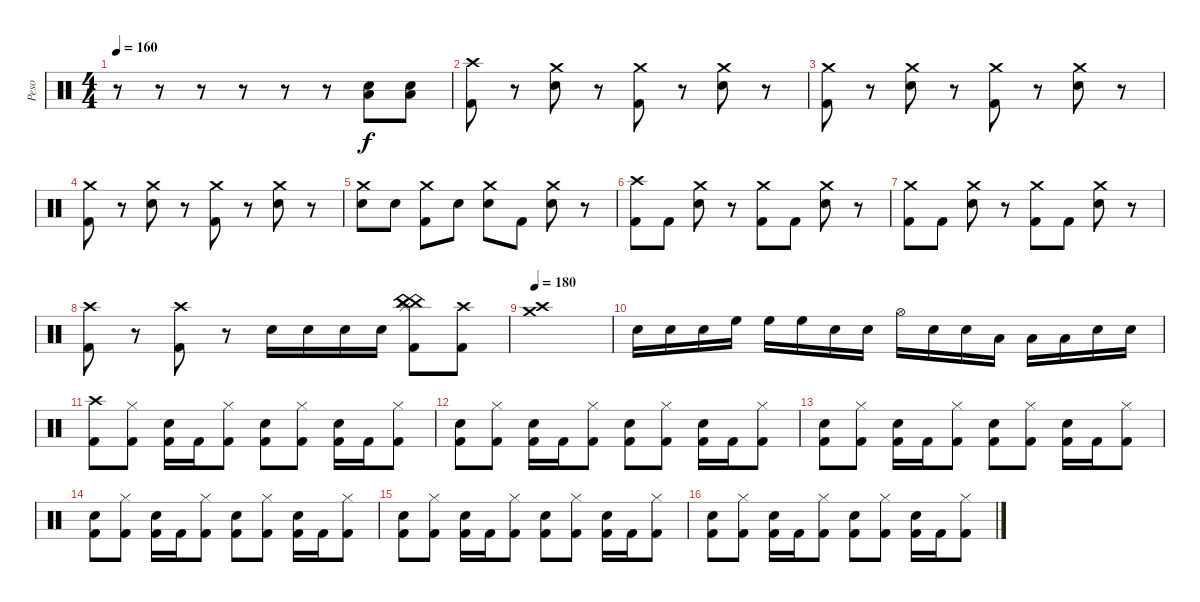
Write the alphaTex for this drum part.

\track ("Peso" "Peso") {instrument percussion}
\staff {score}
\articulation defaults
\ts (4 4)
\tempo 160
\clef neutral
\ks c
r.8{dy f} r.8 r.8 r.8 r.8 r.8 ("Snare (hit) 2" "Low Floor Tom (hit)").8 ("Snare (hit) 2" "Low Floor Tom (hit)").8 |
("Crash high (hit)" "Kick (hit) 2").8 r.8 ("Crash medium (hit)" "Snare (hit) 2").8 r.8 ("Crash medium (hit)" "Kick (hit) 2").8 r.8 ("Crash medium (hit)" "Snare (hit) 2").8 r.8 |
("Crash medium (hit)" "Kick (hit) 2").8 r.8 ("Crash medium (hit)" "Snare (hit) 2").8 r.8 ("Crash medium (hit)" "Kick (hit) 2").8 r.8 ("Crash medium (hit)" "Snare (hit) 2").8 r.8 |
("Crash medium (hit)" "Kick (hit) 2").8 r.8 ("Crash medium (hit)" "Snare (hit) 2").8 r.8 ("Crash medium (hit)" "Kick (hit) 2").8 r.8 ("Crash medium (hit)" "Snare (hit) 2").8 r.8 |
("Crash medium (hit)" "Snare (hit) 2").8 "Snare (hit) 2".8 ("Crash medium (hit)" "Kick (hit) 2").8 "Snare (hit) 2".8 ("Crash medium (hit)" "Snare (hit) 2").8 "Kick (hit) 2".8 ("Crash medium (hit)" "Snare (hit) 2").8 r.8 |
("Crash high (hit)" "Kick (hit) 2").8 "Kick (hit) 2".8 ("Crash medium (hit)" "Snare (hit) 2").8 r.8 ("Crash medium (hit)" "Kick (hit) 2").8 "Kick (hit) 2".8 ("Crash medium (hit)" "Snare (hit) 2").8 r.8 |
("Crash medium (hit)" "Kick (hit) 2").8 "Kick (hit) 2".8 ("Crash medium (hit)" "Snare (hit) 2").8 r.8 ("Crash medium (hit)" "Kick (hit) 2").8 "Kick (hit) 2".8 ("Crash medium (hit)" "Snare (hit) 2").8 r.8 |
("Crash high (hit)" "Kick (hit) 2").8 r.8 ("Crash high (hit)" "Kick (hit) 2").8 r.8 "Snare (hit) 2".16 "Snare (hit) 2".16 "Snare (hit) 2".16 "Snare (hit) 2".16 ("Splash (hit)" "China (hit)" "China (hit)" "China (hit)" "Kick (hit) 2").8 ("Crash high (hit)"{x} "Kick (hit) 2"{x}).8 |
\tempo 180
("Crash high (hit)" "Crash medium (hit)").1 |
"Snare (hit) 2".16 "Snare (hit) 2".16 "Snare (hit) 2".16 "High Floor Tom (hit)".16 "High Floor Tom (hit)".16 "High Floor Tom (hit)".16 "Snare (hit) 2".16 "Snare (hit) 2".16 "Hi-Hat (open)".16 "Snare (hit) 2".16 "Snare (hit) 2".16 "Low Floor Tom (hit)".16 "Low Floor Tom (hit)".16 "Low Floor Tom (hit)".16 "Snare (hit) 2".16 "Snare (hit) 2".16 |
("Crash high (hit)" "Kick (hit) 2").8 ("Hi-Hat (closed)" "Kick (hit) 2").8 ("Snare (hit) 2" "Kick (hit) 2").16 "Kick (hit) 2".16 ("Hi-Hat (closed)" "Kick (hit) 2").8 ("Snare (hit) 2" "Kick (hit) 2").8 ("Hi-Hat (closed)" "Kick (hit) 2").8 ("Snare (hit) 2" "Kick (hit) 2").16 "Kick (hit) 2".16 ("Hi-Hat (closed)" "Kick (hit) 2").8 |
("Snare (hit) 2" "Kick (hit) 2").8 ("Hi-Hat (closed)" "Kick (hit) 2").8 ("Snare (hit) 2" "Kick (hit) 2").16 "Kick (hit) 2".16 ("Hi-Hat (closed)" "Kick (hit) 2").8 ("Snare (hit) 2" "Kick (hit) 2").8 ("Hi-Hat (closed)" "Kick (hit) 2").8 ("Snare (hit) 2" "Kick (hit) 2").16 "Kick (hit) 2".16 ("Hi-Hat (closed)" "Kick (hit) 2").8 |
("Snare (hit) 2" "Kick (hit) 2").8 ("Hi-Hat (closed)" "Kick (hit) 2").8 ("Snare (hit) 2" "Kick (hit) 2").16 "Kick (hit) 2".16 ("Hi-Hat (closed)" "Kick (hit) 2").8 ("Snare (hit) 2" "Kick (hit) 2").8 ("Hi-Hat (closed)" "Kick (hit) 2").8 ("Snare (hit) 2" "Kick (hit) 2").16 "Kick (hit) 2".16 ("Hi-Hat (closed)" "Kick (hit) 2").8 |
("Snare (hit) 2" "Kick (hit) 2").8 ("Hi-Hat (closed)" "Kick (hit) 2").8 ("Snare (hit) 2" "Kick (hit) 2").16 "Kick (hit) 2".16 ("Hi-Hat (closed)" "Kick (hit) 2").8 ("Snare (hit) 2" "Kick (hit) 2").8 ("Hi-Hat (closed)" "Kick (hit) 2").8 ("Snare (hit) 2" "Kick (hit) 2").16 "Kick (hit) 2".16 ("Hi-Hat (closed)" "Kick (hit) 2").8 |
("Snare (hit) 2" "Kick (hit) 2").8 ("Hi-Hat (closed)" "Kick (hit) 2").8 ("Snare (hit) 2" "Kick (hit) 2").16 "Kick (hit) 2".16 ("Hi-Hat (closed)" "Kick (hit) 2").8 ("Snare (hit) 2" "Kick (hit) 2").8 ("Hi-Hat (closed)" "Kick (hit) 2").8 ("Snare (hit) 2" "Kick (hit) 2").16 "Kick (hit) 2".16 ("Hi-Hat (closed)" "Kick (hit) 2").8 |
("Snare (hit) 2" "Kick (hit) 2").8 ("Hi-Hat (closed)" "Kick (hit) 2").8 ("Snare (hit) 2" "Kick (hit) 2").16 "Kick (hit) 2".16 ("Hi-Hat (closed)" "Kick (hit) 2").8 ("Snare (hit) 2" "Kick (hit) 2").8 ("Hi-Hat (closed)" "Kick (hit) 2").8 ("Snare (hit) 2" "Kick (hit) 2").16 "Kick (hit) 2".16 ("Hi-Hat (closed)" "Kick (hit) 2").8
